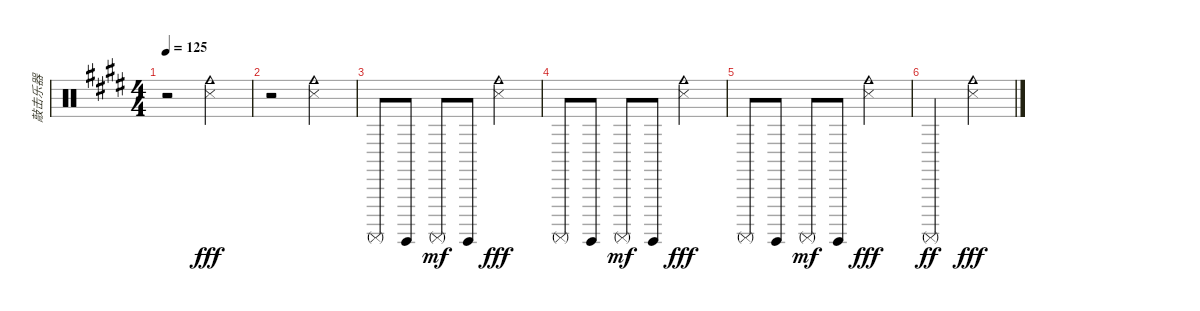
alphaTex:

\track ("敲击乐器" "敲击乐器") {instrument percussion}
\staff {score}
\articulation defaults
\ts (4 4)
\tempo 125
\clef neutral
\ks e
r.2{dy fff} ("Cowbell medium (hit)" "Snare (side stick) 3").2 |
r.2 ("Cowbell medium (hit)" "Snare (side stick) 3").2 |
"Surdo (mute)".8 "Surdo (hit)".8 "Surdo (mute)".8{dy mf} "Surdo (hit)".8 ("Cowbell medium (hit)" "Snare (side stick) 3").2{dy fff} |
"Surdo (mute)".8 "Surdo (hit)".8 "Surdo (mute)".8{dy mf} "Surdo (hit)".8 ("Cowbell medium (hit)" "Snare (side stick) 3").2{dy fff} |
"Surdo (mute)".8 "Surdo (hit)".8 "Surdo (mute)".8{dy mf} "Surdo (hit)".8 ("Cowbell medium (hit)" "Snare (side stick) 3").2{dy fff} |
"Surdo (mute)".2{dy ff} ("Cowbell medium (hit)" "Snare (side stick) 3").2{dy fff}
